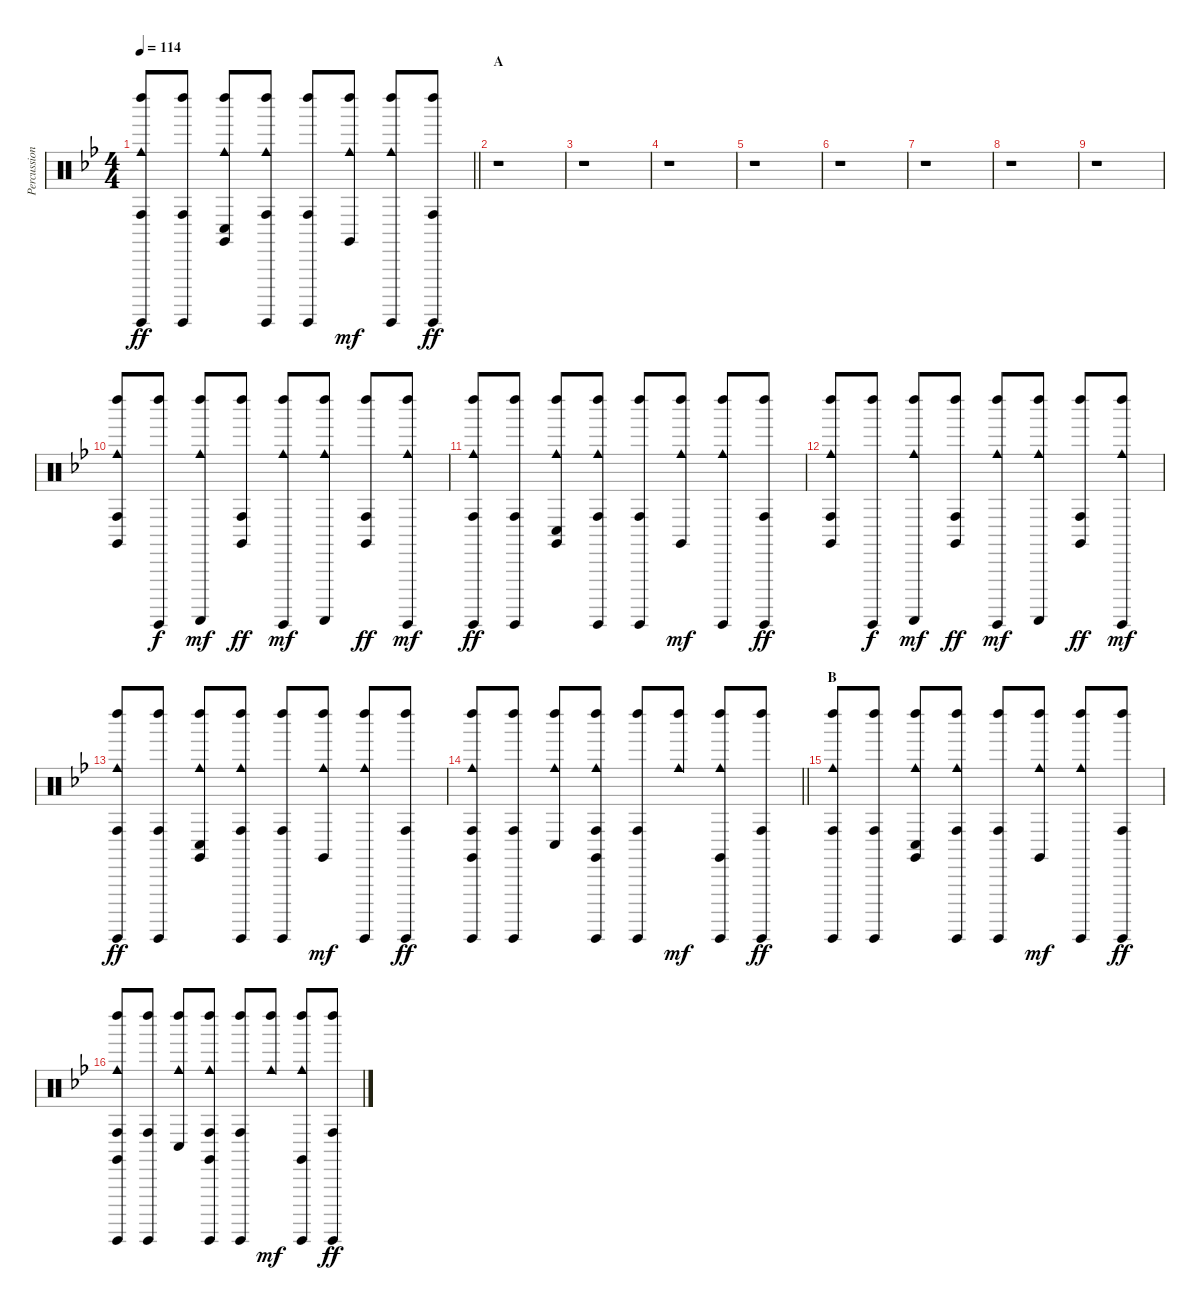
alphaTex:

\track ("Percussion" "Percussion") {instrument percussion}
\staff {score}
\articulation defaults
\ts (4 4)
\tempo 114
\clef neutral
\barLineRight lightlight
\ks gminor
("Guiro (hit)" "Cowbell medium (hit)" "Conga high (hit)" "Left Maraca (hit)").8{dy ff} ("Guiro (hit)" "Conga high (hit)" "Left Maraca (hit)").8 ("Claves (hit)" "Cowbell medium (hit)" "Conga low (hit)" "Left Maraca (hit)").8 ("Guiro (hit)" "Cowbell medium (hit)" "Conga high (hit)" "Left Maraca (hit)").8 ("Guiro (hit)" "Conga high (hit)" "Left Maraca (hit)").8 ("Claves (hit)" "Cowbell medium (hit)" "Left Maraca (hit)").8{dy mf} ("Guiro (hit)" "Cowbell medium (hit)" "Left Maraca (hit)").8 ("Guiro (hit)" "Conga high (hit)" "Left Maraca (hit)").8{dy ff} |
\section ("" "A")
r.1 |
r.1 |
r.1 |
r.1 |
r.1 |
r.1 |
r.1 |
r.1 |
("Claves (hit)" "Cowbell medium (hit)" "Conga high (hit)" "Left Maraca (hit)").8 ("Guiro (hit)" "Left Maraca (hit)").8{dy f} ("Guiro (scrap-return)" "Cowbell medium (hit)" "Left Maraca (hit)").8{dy mf} ("Claves (hit)" "Conga high (hit)" "Left Maraca (hit)").8{dy ff} ("Guiro (hit)" "Cowbell medium (hit)" "Left Maraca (hit)").8{dy mf} ("Guiro (scrap-return)" "Cowbell medium (hit)" "Left Maraca (hit)").8 ("Claves (hit)" "Conga high (hit)" "Left Maraca (hit)").8{dy ff} ("Guiro (hit)" "Cowbell medium (hit)" "Left Maraca (hit)").8{dy mf} |
("Guiro (hit)" "Cowbell medium (hit)" "Conga high (hit)" "Left Maraca (hit)").8{dy ff} ("Guiro (hit)" "Conga high (hit)" "Left Maraca (hit)").8 ("Claves (hit)" "Cowbell medium (hit)" "Conga low (hit)" "Left Maraca (hit)").8 ("Guiro (hit)" "Cowbell medium (hit)" "Conga high (hit)" "Left Maraca (hit)").8 ("Guiro (hit)" "Conga high (hit)" "Left Maraca (hit)").8 ("Claves (hit)" "Cowbell medium (hit)" "Left Maraca (hit)").8{dy mf} ("Guiro (hit)" "Cowbell medium (hit)" "Left Maraca (hit)").8 ("Guiro (hit)" "Conga high (hit)" "Left Maraca (hit)").8{dy ff} |
("Claves (hit)" "Cowbell medium (hit)" "Conga high (hit)" "Left Maraca (hit)").8 ("Guiro (hit)" "Left Maraca (hit)").8{dy f} ("Guiro (scrap-return)" "Cowbell medium (hit)" "Left Maraca (hit)").8{dy mf} ("Claves (hit)" "Conga high (hit)" "Left Maraca (hit)").8{dy ff} ("Guiro (hit)" "Cowbell medium (hit)" "Left Maraca (hit)").8{dy mf} ("Guiro (scrap-return)" "Cowbell medium (hit)" "Left Maraca (hit)").8 ("Claves (hit)" "Conga high (hit)" "Left Maraca (hit)").8{dy ff} ("Guiro (hit)" "Cowbell medium (hit)" "Left Maraca (hit)").8{dy mf} |
("Guiro (hit)" "Cowbell medium (hit)" "Conga high (hit)" "Left Maraca (hit)").8{dy ff} ("Guiro (hit)" "Conga high (hit)" "Left Maraca (hit)").8 ("Claves (hit)" "Cowbell medium (hit)" "Conga low (hit)" "Left Maraca (hit)").8 ("Guiro (hit)" "Cowbell medium (hit)" "Conga high (hit)" "Left Maraca (hit)").8 ("Guiro (hit)" "Conga high (hit)" "Left Maraca (hit)").8 ("Claves (hit)" "Cowbell medium (hit)" "Left Maraca (hit)").8{dy mf} ("Guiro (hit)" "Cowbell medium (hit)" "Left Maraca (hit)").8 ("Guiro (hit)" "Conga high (hit)" "Left Maraca (hit)").8{dy ff} |
\barLineRight lightlight
("Claves (hit)" "Guiro (hit)" "Cowbell medium (hit)" "Conga high (hit)" "Left Maraca (hit)").8 ("Guiro (hit)" "Conga high (hit)" "Left Maraca (hit)").8 ("Cowbell medium (hit)" "Conga low (hit)" "Left Maraca (hit)").8 ("Claves (hit)" "Guiro (hit)" "Cowbell medium (hit)" "Conga high (hit)" "Left Maraca (hit)").8 ("Guiro (hit)" "Conga high (hit)" "Left Maraca (hit)").8 ("Cowbell medium (hit)" "Left Maraca (hit)").8{dy mf} ("Claves (hit)" "Guiro (hit)" "Cowbell medium (hit)" "Left Maraca (hit)").8 ("Guiro (hit)" "Conga high (hit)" "Left Maraca (hit)").8{dy ff} |
\section ("" "B")
("Guiro (hit)" "Cowbell medium (hit)" "Conga high (hit)" "Left Maraca (hit)").8 ("Guiro (hit)" "Conga high (hit)" "Left Maraca (hit)").8 ("Claves (hit)" "Cowbell medium (hit)" "Conga low (hit)" "Left Maraca (hit)").8 ("Guiro (hit)" "Cowbell medium (hit)" "Conga high (hit)" "Left Maraca (hit)").8 ("Guiro (hit)" "Conga high (hit)" "Left Maraca (hit)").8 ("Claves (hit)" "Cowbell medium (hit)" "Left Maraca (hit)").8{dy mf} ("Guiro (hit)" "Cowbell medium (hit)" "Left Maraca (hit)").8 ("Guiro (hit)" "Conga high (hit)" "Left Maraca (hit)").8{dy ff} |
("Claves (hit)" "Guiro (hit)" "Cowbell medium (hit)" "Conga high (hit)" "Left Maraca (hit)").8 ("Guiro (hit)" "Conga high (hit)" "Left Maraca (hit)").8 ("Cowbell medium (hit)" "Conga low (hit)" "Left Maraca (hit)").8 ("Claves (hit)" "Guiro (hit)" "Cowbell medium (hit)" "Conga high (hit)" "Left Maraca (hit)").8 ("Guiro (hit)" "Conga high (hit)" "Left Maraca (hit)").8 ("Cowbell medium (hit)" "Left Maraca (hit)").8{dy mf} ("Claves (hit)" "Guiro (hit)" "Cowbell medium (hit)" "Left Maraca (hit)").8 ("Guiro (hit)" "Conga high (hit)" "Left Maraca (hit)").8{dy ff}
